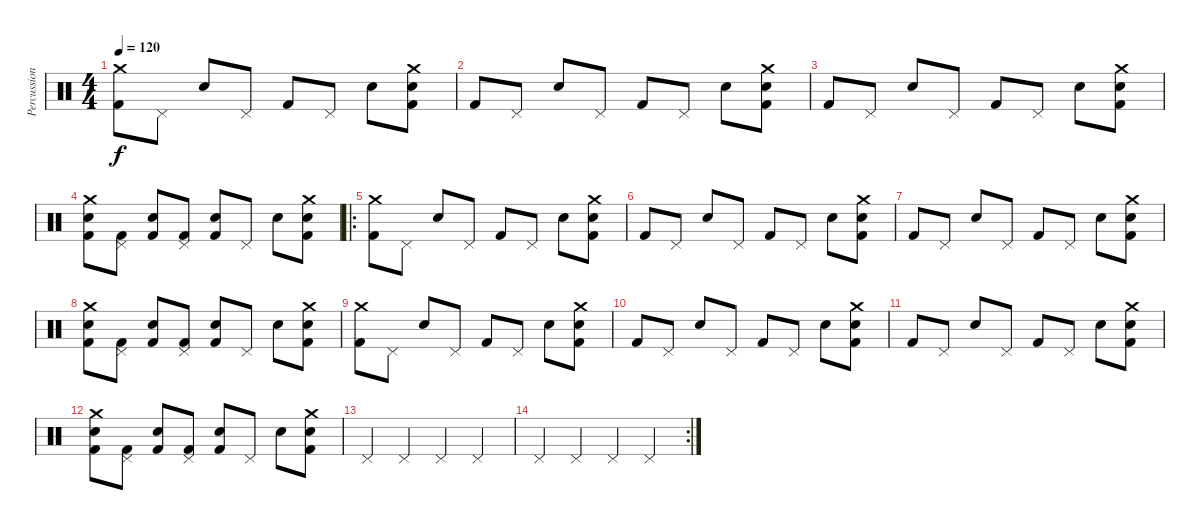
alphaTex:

\track ("Percussions" "Percussion") {instrument percussion}
\staff {score}
\articulation defaults
\ts (4 4)
\tempo 120
\clef neutral
\ks c
("Crash medium (hit)" "Kick (hit) 2").8{dy f} "Pedal Hi-Hat (hit)".8 "Electric Snare (hit)".8 "Pedal Hi-Hat (hit)".8 "Kick (hit) 2".8 "Pedal Hi-Hat (hit)".8 "Electric Snare (hit)".8 ("Crash medium (hit)" "Electric Snare (hit)" "Kick (hit) 2").8 |
"Kick (hit) 2".8 "Pedal Hi-Hat (hit)".8 "Electric Snare (hit)".8 "Pedal Hi-Hat (hit)".8 "Kick (hit) 2".8 "Pedal Hi-Hat (hit)".8 "Electric Snare (hit)".8 ("Crash medium (hit)" "Electric Snare (hit)" "Kick (hit) 2").8 |
"Kick (hit) 2".8 "Pedal Hi-Hat (hit)".8 "Electric Snare (hit)".8 "Pedal Hi-Hat (hit)".8 "Kick (hit) 2".8 "Pedal Hi-Hat (hit)".8 "Electric Snare (hit)".8 ("Crash medium (hit)" "Electric Snare (hit)" "Kick (hit) 2").8 |
("Crash medium (hit)" "Electric Snare (hit)" "Kick (hit) 2").8 ("Pedal Hi-Hat (hit)" "Kick (hit) 2").8 ("Electric Snare (hit)" "Kick (hit) 2").8 ("Pedal Hi-Hat (hit)" "Kick (hit) 2").8 ("Electric Snare (hit)" "Kick (hit) 2").8 "Pedal Hi-Hat (hit)".8 "Electric Snare (hit)".8 ("Crash medium (hit)" "Electric Snare (hit)" "Kick (hit) 2").8 |
\ro
("Crash medium (hit)" "Kick (hit) 2").8 "Pedal Hi-Hat (hit)".8 "Electric Snare (hit)".8 "Pedal Hi-Hat (hit)".8 "Kick (hit) 2".8 "Pedal Hi-Hat (hit)".8 "Electric Snare (hit)".8 ("Crash medium (hit)" "Electric Snare (hit)" "Kick (hit) 2").8 |
"Kick (hit) 2".8 "Pedal Hi-Hat (hit)".8 "Electric Snare (hit)".8 "Pedal Hi-Hat (hit)".8 "Kick (hit) 2".8 "Pedal Hi-Hat (hit)".8 "Electric Snare (hit)".8 ("Crash medium (hit)" "Electric Snare (hit)" "Kick (hit) 2").8 |
"Kick (hit) 2".8 "Pedal Hi-Hat (hit)".8 "Electric Snare (hit)".8 "Pedal Hi-Hat (hit)".8 "Kick (hit) 2".8 "Pedal Hi-Hat (hit)".8 "Electric Snare (hit)".8 ("Crash medium (hit)" "Electric Snare (hit)" "Kick (hit) 2").8 |
("Crash medium (hit)" "Electric Snare (hit)" "Kick (hit) 2").8 ("Pedal Hi-Hat (hit)" "Kick (hit) 2").8 ("Electric Snare (hit)" "Kick (hit) 2").8 ("Pedal Hi-Hat (hit)" "Kick (hit) 2").8 ("Electric Snare (hit)" "Kick (hit) 2").8 "Pedal Hi-Hat (hit)".8 "Electric Snare (hit)".8 ("Crash medium (hit)" "Electric Snare (hit)" "Kick (hit) 2").8 |
("Crash medium (hit)" "Kick (hit) 2").8 "Pedal Hi-Hat (hit)".8 "Electric Snare (hit)".8 "Pedal Hi-Hat (hit)".8 "Kick (hit) 2".8 "Pedal Hi-Hat (hit)".8 "Electric Snare (hit)".8 ("Crash medium (hit)" "Electric Snare (hit)" "Kick (hit) 2").8 |
"Kick (hit) 2".8 "Pedal Hi-Hat (hit)".8 "Electric Snare (hit)".8 "Pedal Hi-Hat (hit)".8 "Kick (hit) 2".8 "Pedal Hi-Hat (hit)".8 "Electric Snare (hit)".8 ("Crash medium (hit)" "Electric Snare (hit)" "Kick (hit) 2").8 |
"Kick (hit) 2".8 "Pedal Hi-Hat (hit)".8 "Electric Snare (hit)".8 "Pedal Hi-Hat (hit)".8 "Kick (hit) 2".8 "Pedal Hi-Hat (hit)".8 "Electric Snare (hit)".8 ("Crash medium (hit)" "Electric Snare (hit)" "Kick (hit) 2").8 |
("Crash medium (hit)" "Electric Snare (hit)" "Kick (hit) 2").8 ("Pedal Hi-Hat (hit)" "Kick (hit) 2").8 ("Electric Snare (hit)" "Kick (hit) 2").8 ("Pedal Hi-Hat (hit)" "Kick (hit) 2").8 ("Electric Snare (hit)" "Kick (hit) 2").8 "Pedal Hi-Hat (hit)".8 "Electric Snare (hit)".8 ("Crash medium (hit)" "Electric Snare (hit)" "Kick (hit) 2").8 |
"Pedal Hi-Hat (hit)".4 "Pedal Hi-Hat (hit)".4 "Pedal Hi-Hat (hit)".4 "Pedal Hi-Hat (hit)".4 |
\rc 2 "Pedal Hi-Hat (hit)".4 "Pedal Hi-Hat (hit)".4 "Pedal Hi-Hat (hit)".4 "Pedal Hi-Hat (hit)".4
